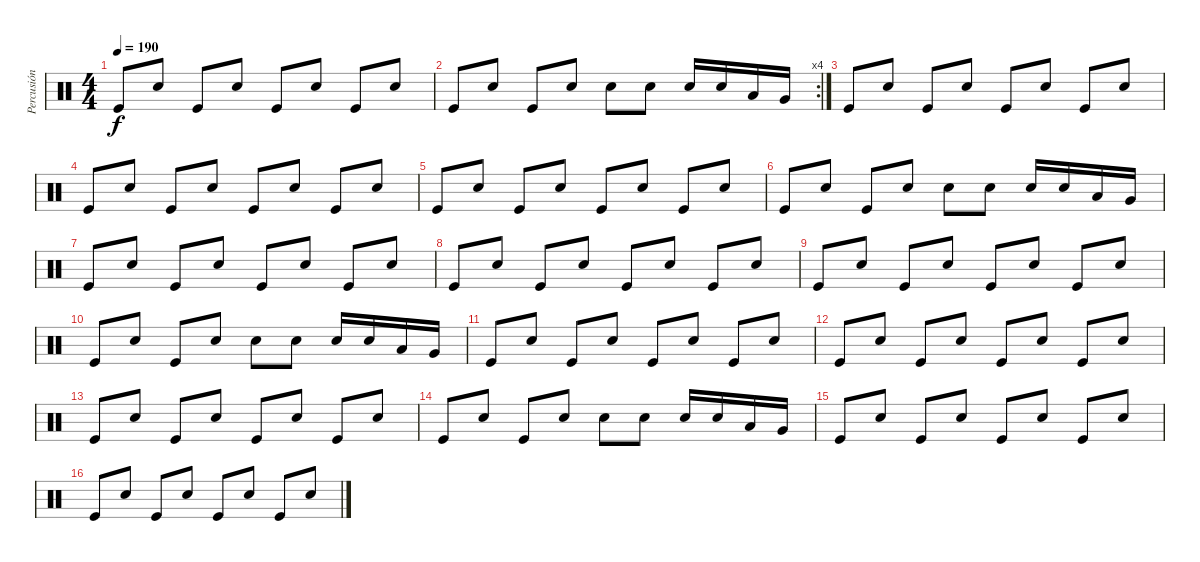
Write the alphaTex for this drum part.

\track ("Percusión" "Percusión") {instrument percussion}
\staff {score}
\articulation defaults
\ts (4 4)
\tempo 190
\clef neutral
\ks c "Kick (hit)".8{dy f} "Electric Snare (hit)".8 "Kick (hit)".8 "Electric Snare (hit)".8 "Kick (hit)".8 "Electric Snare (hit)".8 "Kick (hit)".8 "Electric Snare (hit)".8
|
\rc 4 "Kick (hit)".8 "Electric Snare (hit)".8 "Kick (hit)".8 "Electric Snare (hit)".8 "Electric Snare (hit)".8 "Electric Snare (hit)".8 "Electric Snare (hit)".16 "Electric Snare (hit)".16 "Low Floor Tom (hit)".16 "Very Low Tom (hit)".16
|
"Kick (hit)".8 "Electric Snare (hit)".8 "Kick (hit)".8 "Electric Snare (hit)".8 "Kick (hit)".8 "Electric Snare (hit)".8 "Kick (hit)".8 "Electric Snare (hit)".8 |
"Kick (hit)".8 "Electric Snare (hit)".8 "Kick (hit)".8 "Electric Snare (hit)".8 "Kick (hit)".8 "Electric Snare (hit)".8 "Kick (hit)".8 "Electric Snare (hit)".8 |
"Kick (hit)".8 "Electric Snare (hit)".8 "Kick (hit)".8 "Electric Snare (hit)".8 "Kick (hit)".8 "Electric Snare (hit)".8 "Kick (hit)".8 "Electric Snare (hit)".8 |
"Kick (hit)".8 "Electric Snare (hit)".8 "Kick (hit)".8 "Electric Snare (hit)".8 "Electric Snare (hit)".8 "Electric Snare (hit)".8 "Electric Snare (hit)".16 "Electric Snare (hit)".16 "Low Floor Tom (hit)".16 "Very Low Tom (hit)".16 |
"Kick (hit)".8 "Electric Snare (hit)".8 "Kick (hit)".8 "Electric Snare (hit)".8 "Kick (hit)".8 "Electric Snare (hit)".8 "Kick (hit)".8 "Electric Snare (hit)".8 |
"Kick (hit)".8 "Electric Snare (hit)".8 "Kick (hit)".8 "Electric Snare (hit)".8 "Kick (hit)".8 "Electric Snare (hit)".8 "Kick (hit)".8 "Electric Snare (hit)".8 |
"Kick (hit)".8 "Electric Snare (hit)".8 "Kick (hit)".8 "Electric Snare (hit)".8 "Kick (hit)".8 "Electric Snare (hit)".8 "Kick (hit)".8 "Electric Snare (hit)".8 |
"Kick (hit)".8 "Electric Snare (hit)".8 "Kick (hit)".8 "Electric Snare (hit)".8 "Electric Snare (hit)".8 "Electric Snare (hit)".8 "Electric Snare (hit)".16 "Electric Snare (hit)".16 "Low Floor Tom (hit)".16 "Very Low Tom (hit)".16 |
"Kick (hit)".8 "Electric Snare (hit)".8 "Kick (hit)".8 "Electric Snare (hit)".8 "Kick (hit)".8 "Electric Snare (hit)".8 "Kick (hit)".8 "Electric Snare (hit)".8 |
"Kick (hit)".8 "Electric Snare (hit)".8 "Kick (hit)".8 "Electric Snare (hit)".8 "Kick (hit)".8 "Electric Snare (hit)".8 "Kick (hit)".8 "Electric Snare (hit)".8 |
"Kick (hit)".8 "Electric Snare (hit)".8 "Kick (hit)".8 "Electric Snare (hit)".8 "Kick (hit)".8 "Electric Snare (hit)".8 "Kick (hit)".8 "Electric Snare (hit)".8 |
"Kick (hit)".8 "Electric Snare (hit)".8 "Kick (hit)".8 "Electric Snare (hit)".8 "Electric Snare (hit)".8 "Electric Snare (hit)".8 "Electric Snare (hit)".16 "Electric Snare (hit)".16 "Low Floor Tom (hit)".16 "Very Low Tom (hit)".16 |
"Kick (hit)".8 "Electric Snare (hit)".8 "Kick (hit)".8 "Electric Snare (hit)".8 "Kick (hit)".8 "Electric Snare (hit)".8 "Kick (hit)".8 "Electric Snare (hit)".8 |
"Kick (hit)".8 "Electric Snare (hit)".8 "Kick (hit)".8 "Electric Snare (hit)".8 "Kick (hit)".8 "Electric Snare (hit)".8 "Kick (hit)".8 "Electric Snare (hit)".8
